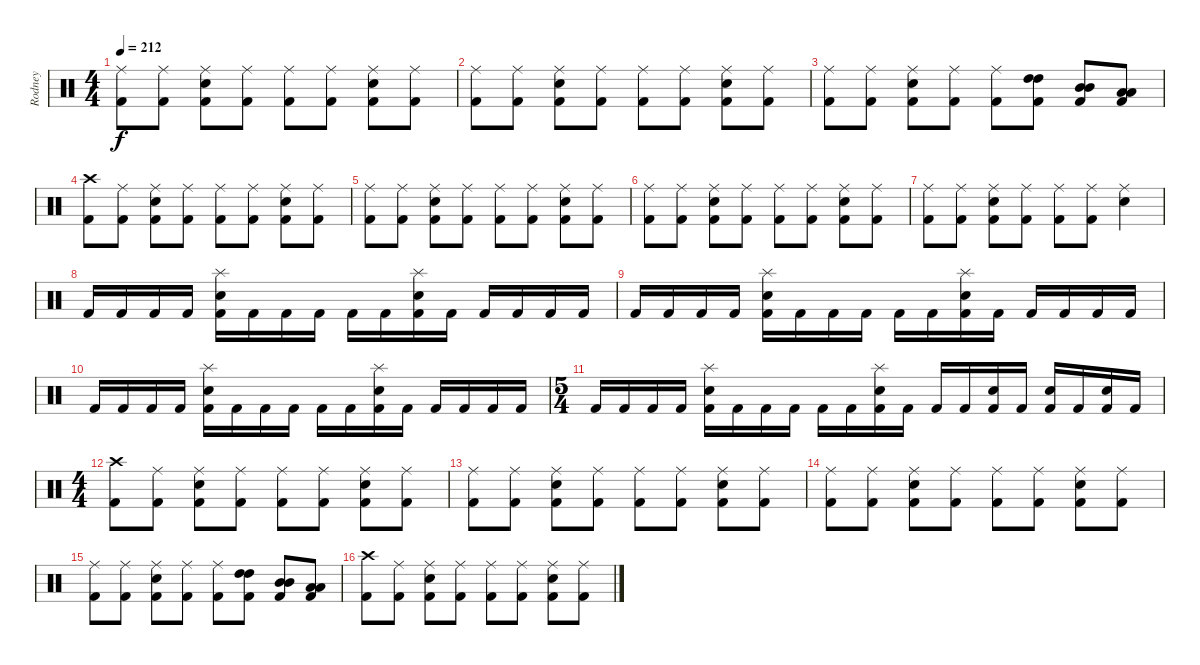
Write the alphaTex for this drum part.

\track ("Rodney" "Rodney") {instrument percussion}
\staff {score}
\articulation defaults
\ts (4 4)
\tempo 212
\clef neutral
\ks c
("Ride (middle)" "Kick (hit) 2").8{dy f} ("Ride (middle)" "Kick (hit) 2").8 ("Ride (middle)" "Snare (hit) 2" "Kick (hit) 2").8 ("Ride (middle)" "Kick (hit) 2").8 ("Ride (middle)" "Kick (hit) 2").8 ("Ride (middle)" "Kick (hit) 2").8 ("Ride (middle)" "Snare (hit) 2" "Kick (hit) 2").8 ("Ride (middle)" "Kick (hit) 2").8 |
("Ride (middle)" "Kick (hit) 2").8 ("Ride (middle)" "Kick (hit) 2").8 ("Ride (middle)" "Snare (hit) 2" "Kick (hit) 2").8 ("Ride (middle)" "Kick (hit) 2").8 ("Ride (middle)" "Kick (hit) 2").8 ("Ride (middle)" "Kick (hit) 2").8 ("Ride (middle)" "Snare (hit) 2" "Kick (hit) 2").8 ("Ride (middle)" "Kick (hit) 2").8 |
("Ride (middle)" "Kick (hit) 2").8 ("Ride (middle)" "Kick (hit) 2").8 ("Ride (middle)" "Snare (hit) 2" "Kick (hit) 2").8 ("Ride (middle)" "Kick (hit) 2").8 ("Ride (middle)" "Kick (hit) 2").8 ("High Tom (hit)" "High Tom (hit)" "Kick (hit) 2").8 ("Mid Tom (hit)" "Mid Tom (hit)" "Kick (hit) 2").8 ("Low Tom (hit)" "Low Tom (hit)" "Kick (hit) 2").8 |
("Crash high (hit)" "Kick (hit) 2").8 ("Ride (middle)" "Kick (hit) 2").8 ("Ride (middle)" "Snare (hit) 2" "Kick (hit) 2").8 ("Ride (middle)" "Kick (hit) 2").8 ("Ride (middle)" "Kick (hit) 2").8 ("Ride (middle)" "Kick (hit) 2").8 ("Ride (middle)" "Snare (hit) 2" "Kick (hit) 2").8 ("Ride (middle)" "Kick (hit) 2").8 |
("Ride (middle)" "Kick (hit) 2").8 ("Ride (middle)" "Kick (hit) 2").8 ("Ride (middle)" "Snare (hit) 2" "Kick (hit) 2").8 ("Ride (middle)" "Kick (hit) 2").8 ("Ride (middle)" "Kick (hit) 2").8 ("Ride (middle)" "Kick (hit) 2").8 ("Ride (middle)" "Snare (hit) 2" "Kick (hit) 2").8 ("Ride (middle)" "Kick (hit) 2").8 |
("Ride (middle)" "Kick (hit) 2").8 ("Ride (middle)" "Kick (hit) 2").8 ("Ride (middle)" "Snare (hit) 2" "Kick (hit) 2").8 ("Ride (middle)" "Kick (hit) 2").8 ("Ride (middle)" "Kick (hit) 2").8 ("Ride (middle)" "Kick (hit) 2").8 ("Ride (middle)" "Snare (hit) 2" "Kick (hit) 2").8 ("Ride (middle)" "Kick (hit) 2").8 |
("Ride (middle)" "Kick (hit) 2").8 ("Ride (middle)" "Kick (hit) 2").8 ("Ride (middle)" "Snare (hit) 2" "Kick (hit) 2").8 ("Ride (middle)" "Kick (hit) 2").8 ("Ride (middle)" "Kick (hit) 2").8 ("Ride (middle)" "Kick (hit) 2").8 ("Ride (middle)" "Snare (hit) 2").4 |
"Kick (hit) 2".16 "Kick (hit) 2".16 "Kick (hit) 2".16 "Kick (hit) 2".16 ("Splash (hit)" "Snare (hit) 2" "Kick (hit) 2").16 "Kick (hit) 2".16 "Kick (hit) 2".16 "Kick (hit) 2".16 "Kick (hit) 2".16 "Kick (hit) 2".16 ("Splash (hit)" "Snare (hit) 2" "Kick (hit) 2").16 "Kick (hit) 2".16 "Kick (hit) 2".16 "Kick (hit) 2".16 "Kick (hit) 2".16 "Kick (hit) 2".16 |
"Kick (hit) 2".16 "Kick (hit) 2".16 "Kick (hit) 2".16 "Kick (hit) 2".16 ("Splash (hit)" "Snare (hit) 2" "Kick (hit) 2").16 "Kick (hit) 2".16 "Kick (hit) 2".16 "Kick (hit) 2".16 "Kick (hit) 2".16 "Kick (hit) 2".16 ("Splash (hit)" "Snare (hit) 2" "Kick (hit) 2").16 "Kick (hit) 2".16 "Kick (hit) 2".16 "Kick (hit) 2".16 "Kick (hit) 2".16 "Kick (hit) 2".16 |
"Kick (hit) 2".16 "Kick (hit) 2".16 "Kick (hit) 2".16 "Kick (hit) 2".16 ("Splash (hit)" "Snare (hit) 2" "Kick (hit) 2").16 "Kick (hit) 2".16 "Kick (hit) 2".16 "Kick (hit) 2".16 "Kick (hit) 2".16 "Kick (hit) 2".16 ("Splash (hit)" "Snare (hit) 2" "Kick (hit) 2").16 "Kick (hit) 2".16 "Kick (hit) 2".16 "Kick (hit) 2".16 "Kick (hit) 2".16 "Kick (hit) 2".16 |
\ts (5 4)
"Kick (hit) 2".16 "Kick (hit) 2".16 "Kick (hit) 2".16 "Kick (hit) 2".16 ("Splash (hit)" "Snare (hit) 2" "Kick (hit) 2").16 "Kick (hit) 2".16 "Kick (hit) 2".16 "Kick (hit) 2".16 "Kick (hit) 2".16 "Kick (hit) 2".16 ("Splash (hit)" "Snare (hit) 2" "Kick (hit) 2").16 "Kick (hit) 2".16 "Kick (hit) 2".16 "Kick (hit) 2".16 ("Snare (hit) 2" "Kick (hit) 2").16 "Kick (hit) 2".16 ("Snare (hit) 2" "Kick (hit) 2").16 "Kick (hit) 2".16 ("Snare (hit) 2" "Kick (hit) 2").16 "Kick (hit) 2".16 |
\ts (4 4)
("Crash high (hit)" "Kick (hit) 2").8 ("Ride (middle)" "Kick (hit) 2").8 ("Ride (middle)" "Snare (hit) 2" "Kick (hit) 2").8 ("Ride (middle)" "Kick (hit) 2").8 ("Ride (middle)" "Kick (hit) 2").8 ("Ride (middle)" "Kick (hit) 2").8 ("Ride (middle)" "Snare (hit) 2" "Kick (hit) 2").8 ("Ride (middle)" "Kick (hit) 2").8 |
("Ride (middle)" "Kick (hit) 2").8 ("Ride (middle)" "Kick (hit) 2").8 ("Ride (middle)" "Snare (hit) 2" "Kick (hit) 2").8 ("Ride (middle)" "Kick (hit) 2").8 ("Ride (middle)" "Kick (hit) 2").8 ("Ride (middle)" "Kick (hit) 2").8 ("Ride (middle)" "Snare (hit) 2" "Kick (hit) 2").8 ("Ride (middle)" "Kick (hit) 2").8 |
("Ride (middle)" "Kick (hit) 2").8 ("Ride (middle)" "Kick (hit) 2").8 ("Ride (middle)" "Snare (hit) 2" "Kick (hit) 2").8 ("Ride (middle)" "Kick (hit) 2").8 ("Ride (middle)" "Kick (hit) 2").8 ("Ride (middle)" "Kick (hit) 2").8 ("Ride (middle)" "Snare (hit) 2" "Kick (hit) 2").8 ("Ride (middle)" "Kick (hit) 2").8 |
("Ride (middle)" "Kick (hit) 2").8 ("Ride (middle)" "Kick (hit) 2").8 ("Ride (middle)" "Snare (hit) 2" "Kick (hit) 2").8 ("Ride (middle)" "Kick (hit) 2").8 ("Ride (middle)" "Kick (hit) 2").8 ("High Tom (hit)" "High Tom (hit)" "Kick (hit) 2").8 ("Mid Tom (hit)" "Mid Tom (hit)" "Kick (hit) 2").8 ("Low Tom (hit)" "Low Tom (hit)" "Kick (hit) 2").8 |
("Crash high (hit)" "Kick (hit) 2").8 ("Ride (middle)" "Kick (hit) 2").8 ("Ride (middle)" "Snare (hit) 2" "Kick (hit) 2").8 ("Ride (middle)" "Kick (hit) 2").8 ("Ride (middle)" "Kick (hit) 2").8 ("Ride (middle)" "Kick (hit) 2").8 ("Ride (middle)" "Snare (hit) 2" "Kick (hit) 2").8 ("Ride (middle)" "Kick (hit) 2").8
